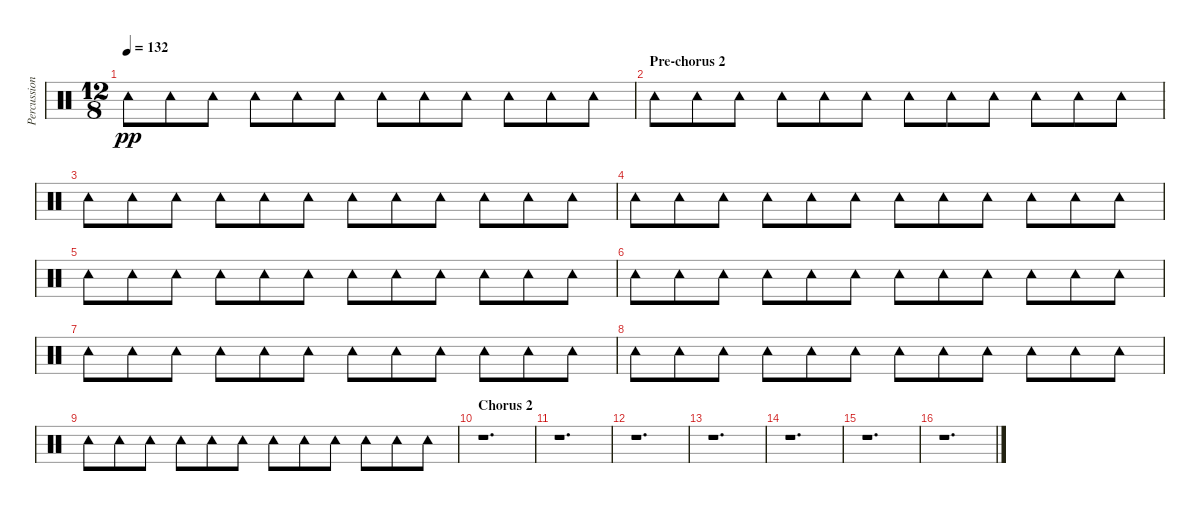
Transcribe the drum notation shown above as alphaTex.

\track ("Percussion" "Percussion") {instrument percussion}
\staff {score}
\articulation defaults
\ts (12 8)
\tempo 132
\clef neutral
\ks c "Tambourine (hit)".8{dy pp} "Tambourine (hit)".8 "Tambourine (hit)".8 "Tambourine (hit)".8 "Tambourine (hit)".8 "Tambourine (hit)".8 "Tambourine (hit)".8 "Tambourine (hit)".8 "Tambourine (hit)".8 "Tambourine (hit)".8 "Tambourine (hit)".8 "Tambourine (hit)".8
|
\section ("" "Pre-chorus 2")
"Tambourine (hit)".8 "Tambourine (hit)".8 "Tambourine (hit)".8 "Tambourine (hit)".8 "Tambourine (hit)".8 "Tambourine (hit)".8 "Tambourine (hit)".8 "Tambourine (hit)".8 "Tambourine (hit)".8 "Tambourine (hit)".8 "Tambourine (hit)".8 "Tambourine (hit)".8 |
"Tambourine (hit)".8 "Tambourine (hit)".8 "Tambourine (hit)".8 "Tambourine (hit)".8 "Tambourine (hit)".8 "Tambourine (hit)".8 "Tambourine (hit)".8 "Tambourine (hit)".8 "Tambourine (hit)".8 "Tambourine (hit)".8 "Tambourine (hit)".8 "Tambourine (hit)".8 |
"Tambourine (hit)".8 "Tambourine (hit)".8 "Tambourine (hit)".8 "Tambourine (hit)".8 "Tambourine (hit)".8 "Tambourine (hit)".8 "Tambourine (hit)".8 "Tambourine (hit)".8 "Tambourine (hit)".8 "Tambourine (hit)".8 "Tambourine (hit)".8 "Tambourine (hit)".8 |
"Tambourine (hit)".8 "Tambourine (hit)".8 "Tambourine (hit)".8 "Tambourine (hit)".8 "Tambourine (hit)".8 "Tambourine (hit)".8 "Tambourine (hit)".8 "Tambourine (hit)".8 "Tambourine (hit)".8 "Tambourine (hit)".8 "Tambourine (hit)".8 "Tambourine (hit)".8 |
"Tambourine (hit)".8 "Tambourine (hit)".8 "Tambourine (hit)".8 "Tambourine (hit)".8 "Tambourine (hit)".8 "Tambourine (hit)".8 "Tambourine (hit)".8 "Tambourine (hit)".8 "Tambourine (hit)".8 "Tambourine (hit)".8 "Tambourine (hit)".8 "Tambourine (hit)".8 |
"Tambourine (hit)".8 "Tambourine (hit)".8 "Tambourine (hit)".8 "Tambourine (hit)".8 "Tambourine (hit)".8 "Tambourine (hit)".8 "Tambourine (hit)".8 "Tambourine (hit)".8 "Tambourine (hit)".8 "Tambourine (hit)".8 "Tambourine (hit)".8 "Tambourine (hit)".8 |
"Tambourine (hit)".8 "Tambourine (hit)".8 "Tambourine (hit)".8 "Tambourine (hit)".8 "Tambourine (hit)".8 "Tambourine (hit)".8 "Tambourine (hit)".8 "Tambourine (hit)".8 "Tambourine (hit)".8 "Tambourine (hit)".8 "Tambourine (hit)".8 "Tambourine (hit)".8 |
"Tambourine (hit)".8 "Tambourine (hit)".8 "Tambourine (hit)".8 "Tambourine (hit)".8 "Tambourine (hit)".8 "Tambourine (hit)".8 "Tambourine (hit)".8 "Tambourine (hit)".8 "Tambourine (hit)".8 "Tambourine (hit)".8 "Tambourine (hit)".8 "Tambourine (hit)".8 |
\section ("" "Chorus 2")
r.1{d} |
r.1{d} |
r.1{d} |
r.1{d} |
r.1{d} |
r.1{d} |
r.1{d}
